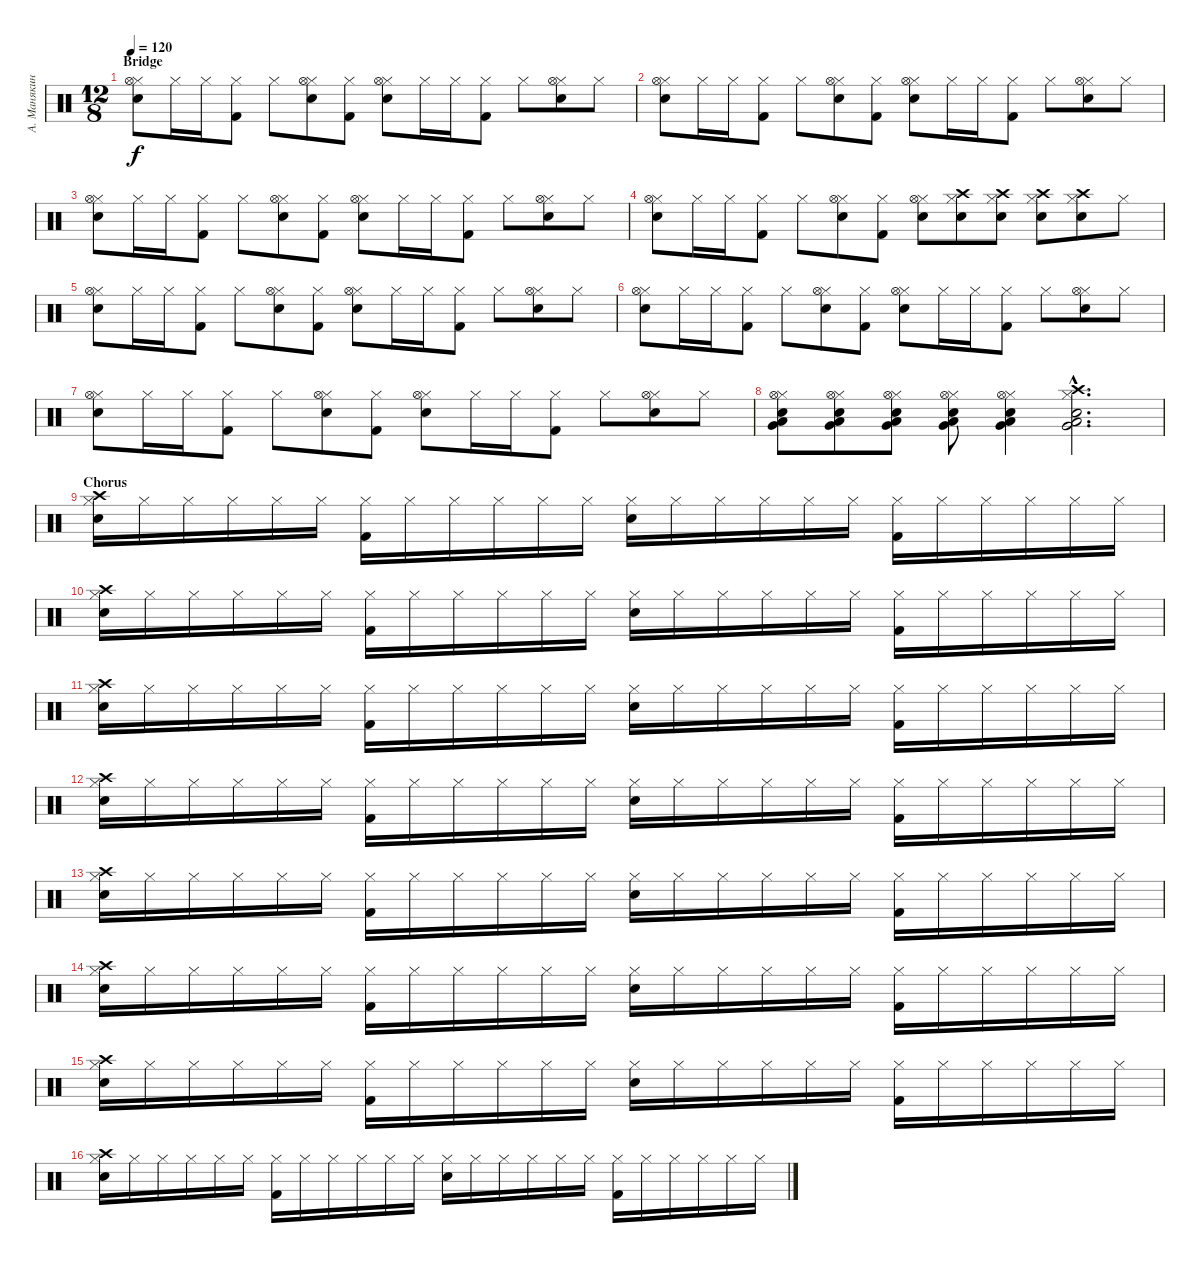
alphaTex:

\track ("А. Манякин" "А. Манякин") {instrument percussion}
\staff {score}
\articulation defaults
\ts (12 8)
\section ("" "Bridge")
\tempo 120
\clef neutral
\ks c
("Hi-Hat (closed)" "Snare (hit) 2" "Hi-Hat (open)").8{dy f} "Hi-Hat (closed)".16 "Hi-Hat (closed)".16 ("Hi-Hat (closed)" "Kick (hit) 2").8 "Hi-Hat (closed)".8 ("Hi-Hat (closed)" "Snare (hit) 2" "Hi-Hat (open)").8 ("Hi-Hat (closed)" "Kick (hit) 2").8 ("Hi-Hat (closed)" "Snare (hit) 2" "Hi-Hat (open)").8 "Hi-Hat (closed)".16 "Hi-Hat (closed)".16 ("Hi-Hat (closed)" "Kick (hit) 2").8 "Hi-Hat (closed)".8 ("Hi-Hat (closed)" "Snare (hit) 2" "Hi-Hat (open)").8 "Hi-Hat (closed)".8 |
("Hi-Hat (closed)" "Snare (hit) 2" "Hi-Hat (open)").8 "Hi-Hat (closed)".16 "Hi-Hat (closed)".16 ("Hi-Hat (closed)" "Kick (hit) 2").8 "Hi-Hat (closed)".8 ("Hi-Hat (closed)" "Snare (hit) 2" "Hi-Hat (open)").8 ("Hi-Hat (closed)" "Kick (hit) 2").8 ("Hi-Hat (closed)" "Snare (hit) 2" "Hi-Hat (open)").8 "Hi-Hat (closed)".16 "Hi-Hat (closed)".16 ("Hi-Hat (closed)" "Kick (hit) 2").8 "Hi-Hat (closed)".8 ("Hi-Hat (closed)" "Snare (hit) 2" "Hi-Hat (open)").8 "Hi-Hat (closed)".8 |
("Hi-Hat (closed)" "Snare (hit) 2" "Hi-Hat (open)").8 "Hi-Hat (closed)".16 "Hi-Hat (closed)".16 ("Hi-Hat (closed)" "Kick (hit) 2").8 "Hi-Hat (closed)".8 ("Hi-Hat (closed)" "Snare (hit) 2" "Hi-Hat (open)").8 ("Hi-Hat (closed)" "Kick (hit) 2").8 ("Hi-Hat (closed)" "Snare (hit) 2" "Hi-Hat (open)").8 "Hi-Hat (closed)".16 "Hi-Hat (closed)".16 ("Hi-Hat (closed)" "Kick (hit) 2").8 "Hi-Hat (closed)".8 ("Hi-Hat (closed)" "Snare (hit) 2" "Hi-Hat (open)").8 "Hi-Hat (closed)".8 |
("Hi-Hat (closed)" "Snare (hit) 2" "Hi-Hat (open)").8 "Hi-Hat (closed)".16 "Hi-Hat (closed)".16 ("Hi-Hat (closed)" "Kick (hit) 2").8 "Hi-Hat (closed)".8 ("Hi-Hat (closed)" "Snare (hit) 2" "Hi-Hat (open)").8 ("Hi-Hat (closed)" "Kick (hit) 2").8 ("Hi-Hat (closed)" "Snare (hit) 2" "Hi-Hat (open)").8 ("Hi-Hat (closed)" "Snare (hit) 2" "Crash high (hit)").8 ("Hi-Hat (closed)" "Snare (hit) 2" "Crash high (hit)").8 ("Hi-Hat (closed)" "Snare (hit) 2" "Crash high (hit)").8 ("Hi-Hat (closed)" "Snare (hit) 2" "Crash high (hit)").8 "Hi-Hat (closed)".8 |
("Hi-Hat (closed)" "Snare (hit) 2" "Hi-Hat (open)").8 "Hi-Hat (closed)".16 "Hi-Hat (closed)".16 ("Hi-Hat (closed)" "Kick (hit) 2").8 "Hi-Hat (closed)".8 ("Hi-Hat (closed)" "Snare (hit) 2" "Hi-Hat (open)").8 ("Hi-Hat (closed)" "Kick (hit) 2").8 ("Hi-Hat (closed)" "Snare (hit) 2" "Hi-Hat (open)").8 "Hi-Hat (closed)".16 "Hi-Hat (closed)".16 ("Hi-Hat (closed)" "Kick (hit) 2").8 "Hi-Hat (closed)".8 ("Hi-Hat (closed)" "Snare (hit) 2" "Hi-Hat (open)").8 "Hi-Hat (closed)".8 |
("Hi-Hat (closed)" "Snare (hit) 2" "Hi-Hat (open)").8 "Hi-Hat (closed)".16 "Hi-Hat (closed)".16 ("Hi-Hat (closed)" "Kick (hit) 2").8 "Hi-Hat (closed)".8 ("Hi-Hat (closed)" "Snare (hit) 2" "Hi-Hat (open)").8 ("Hi-Hat (closed)" "Kick (hit) 2").8 ("Hi-Hat (closed)" "Snare (hit) 2" "Hi-Hat (open)").8 "Hi-Hat (closed)".16 "Hi-Hat (closed)".16 ("Hi-Hat (closed)" "Kick (hit) 2").8 "Hi-Hat (closed)".8 ("Hi-Hat (closed)" "Snare (hit) 2" "Hi-Hat (open)").8 "Hi-Hat (closed)".8 |
("Hi-Hat (closed)" "Snare (hit) 2" "Hi-Hat (open)").8 "Hi-Hat (closed)".16 "Hi-Hat (closed)".16 ("Hi-Hat (closed)" "Kick (hit) 2").8 "Hi-Hat (closed)".8 ("Hi-Hat (closed)" "Snare (hit) 2" "Hi-Hat (open)").8 ("Hi-Hat (closed)" "Kick (hit) 2").8 ("Hi-Hat (closed)" "Snare (hit) 2" "Hi-Hat (open)").8 "Hi-Hat (closed)".16 "Hi-Hat (closed)".16 ("Hi-Hat (closed)" "Kick (hit) 2").8 "Hi-Hat (closed)".8 ("Hi-Hat (closed)" "Snare (hit) 2" "Hi-Hat (open)").8 "Hi-Hat (closed)".8 |
("Hi-Hat (closed)" "Snare (hit) 2" "Low Tom (hit)" "Very Low Tom (hit)" "Hi-Hat (open)").8 ("Hi-Hat (closed)" "Snare (hit) 2" "Low Tom (hit)" "Very Low Tom (hit)" "Hi-Hat (open)").8 ("Hi-Hat (closed)" "Snare (hit) 2" "Very Low Tom (hit)" "Low Tom (hit)" "Hi-Hat (open)").8 ("Hi-Hat (closed)" "Snare (hit) 2" "Very Low Tom (hit)" "Low Tom (hit)" "Hi-Hat (open)").8 ("Hi-Hat (closed)" "Snare (hit) 2" "Low Tom (hit)" "Very Low Tom (hit)" "Hi-Hat (open)").4 ("Hi-Hat (closed)"{hac} "Snare (hit) 2"{hac} "Low Tom (hit)"{hac} "Very Low Tom (hit)"{hac} "Crash high (hit)"{hac}).2{d} |
\section ("" "Chorus")
("Hi-Hat (closed)" "Snare (hit) 2" "Crash high (hit)").16 "Hi-Hat (closed)".16 "Hi-Hat (closed)".16 "Hi-Hat (closed)".16 "Hi-Hat (closed)".16 "Hi-Hat (closed)".16 ("Hi-Hat (closed)" "Kick (hit) 2").16 "Hi-Hat (closed)".16 "Hi-Hat (closed)".16 "Hi-Hat (closed)".16 "Hi-Hat (closed)".16 "Hi-Hat (closed)".16 ("Hi-Hat (closed)" "Snare (hit) 2").16 "Hi-Hat (closed)".16 "Hi-Hat (closed)".16 "Hi-Hat (closed)".16 "Hi-Hat (closed)".16 "Hi-Hat (closed)".16 ("Hi-Hat (closed)" "Kick (hit) 2").16 "Hi-Hat (closed)".16 "Hi-Hat (closed)".16 "Hi-Hat (closed)".16 "Hi-Hat (closed)".16 "Hi-Hat (closed)".16 |
("Hi-Hat (closed)" "Snare (hit) 2" "Crash high (hit)").16 "Hi-Hat (closed)".16 "Hi-Hat (closed)".16 "Hi-Hat (closed)".16 "Hi-Hat (closed)".16 "Hi-Hat (closed)".16 ("Hi-Hat (closed)" "Kick (hit) 2").16 "Hi-Hat (closed)".16 "Hi-Hat (closed)".16 "Hi-Hat (closed)".16 "Hi-Hat (closed)".16 "Hi-Hat (closed)".16 ("Hi-Hat (closed)" "Snare (hit) 2").16 "Hi-Hat (closed)".16 "Hi-Hat (closed)".16 "Hi-Hat (closed)".16 "Hi-Hat (closed)".16 "Hi-Hat (closed)".16 ("Hi-Hat (closed)" "Kick (hit) 2").16 "Hi-Hat (closed)".16 "Hi-Hat (closed)".16 "Hi-Hat (closed)".16 "Hi-Hat (closed)".16 "Hi-Hat (closed)".16 |
("Hi-Hat (closed)" "Snare (hit) 2" "Crash high (hit)").16 "Hi-Hat (closed)".16 "Hi-Hat (closed)".16 "Hi-Hat (closed)".16 "Hi-Hat (closed)".16 "Hi-Hat (closed)".16 ("Hi-Hat (closed)" "Kick (hit) 2").16 "Hi-Hat (closed)".16 "Hi-Hat (closed)".16 "Hi-Hat (closed)".16 "Hi-Hat (closed)".16 "Hi-Hat (closed)".16 ("Hi-Hat (closed)" "Snare (hit) 2").16 "Hi-Hat (closed)".16 "Hi-Hat (closed)".16 "Hi-Hat (closed)".16 "Hi-Hat (closed)".16 "Hi-Hat (closed)".16 ("Hi-Hat (closed)" "Kick (hit) 2").16 "Hi-Hat (closed)".16 "Hi-Hat (closed)".16 "Hi-Hat (closed)".16 "Hi-Hat (closed)".16 "Hi-Hat (closed)".16 |
("Hi-Hat (closed)" "Snare (hit) 2" "Crash high (hit)").16 "Hi-Hat (closed)".16 "Hi-Hat (closed)".16 "Hi-Hat (closed)".16 "Hi-Hat (closed)".16 "Hi-Hat (closed)".16 ("Hi-Hat (closed)" "Kick (hit) 2").16 "Hi-Hat (closed)".16 "Hi-Hat (closed)".16 "Hi-Hat (closed)".16 "Hi-Hat (closed)".16 "Hi-Hat (closed)".16 ("Hi-Hat (closed)" "Snare (hit) 2").16 "Hi-Hat (closed)".16 "Hi-Hat (closed)".16 "Hi-Hat (closed)".16 "Hi-Hat (closed)".16 "Hi-Hat (closed)".16 ("Hi-Hat (closed)" "Kick (hit) 2").16 "Hi-Hat (closed)".16 "Hi-Hat (closed)".16 "Hi-Hat (closed)".16 "Hi-Hat (closed)".16 "Hi-Hat (closed)".16 |
("Hi-Hat (closed)" "Snare (hit) 2" "Crash high (hit)").16 "Hi-Hat (closed)".16 "Hi-Hat (closed)".16 "Hi-Hat (closed)".16 "Hi-Hat (closed)".16 "Hi-Hat (closed)".16 ("Hi-Hat (closed)" "Kick (hit) 2").16 "Hi-Hat (closed)".16 "Hi-Hat (closed)".16 "Hi-Hat (closed)".16 "Hi-Hat (closed)".16 "Hi-Hat (closed)".16 ("Hi-Hat (closed)" "Snare (hit) 2").16 "Hi-Hat (closed)".16 "Hi-Hat (closed)".16 "Hi-Hat (closed)".16 "Hi-Hat (closed)".16 "Hi-Hat (closed)".16 ("Hi-Hat (closed)" "Kick (hit) 2").16 "Hi-Hat (closed)".16 "Hi-Hat (closed)".16 "Hi-Hat (closed)".16 "Hi-Hat (closed)".16 "Hi-Hat (closed)".16 |
("Hi-Hat (closed)" "Snare (hit) 2" "Crash high (hit)").16 "Hi-Hat (closed)".16 "Hi-Hat (closed)".16 "Hi-Hat (closed)".16 "Hi-Hat (closed)".16 "Hi-Hat (closed)".16 ("Hi-Hat (closed)" "Kick (hit) 2").16 "Hi-Hat (closed)".16 "Hi-Hat (closed)".16 "Hi-Hat (closed)".16 "Hi-Hat (closed)".16 "Hi-Hat (closed)".16 ("Hi-Hat (closed)" "Snare (hit) 2").16 "Hi-Hat (closed)".16 "Hi-Hat (closed)".16 "Hi-Hat (closed)".16 "Hi-Hat (closed)".16 "Hi-Hat (closed)".16 ("Hi-Hat (closed)" "Kick (hit) 2").16 "Hi-Hat (closed)".16 "Hi-Hat (closed)".16 "Hi-Hat (closed)".16 "Hi-Hat (closed)".16 "Hi-Hat (closed)".16 |
("Hi-Hat (closed)" "Snare (hit) 2" "Crash high (hit)").16 "Hi-Hat (closed)".16 "Hi-Hat (closed)".16 "Hi-Hat (closed)".16 "Hi-Hat (closed)".16 "Hi-Hat (closed)".16 ("Hi-Hat (closed)" "Kick (hit) 2").16 "Hi-Hat (closed)".16 "Hi-Hat (closed)".16 "Hi-Hat (closed)".16 "Hi-Hat (closed)".16 "Hi-Hat (closed)".16 ("Hi-Hat (closed)" "Snare (hit) 2").16 "Hi-Hat (closed)".16 "Hi-Hat (closed)".16 "Hi-Hat (closed)".16 "Hi-Hat (closed)".16 "Hi-Hat (closed)".16 ("Hi-Hat (closed)" "Kick (hit) 2").16 "Hi-Hat (closed)".16 "Hi-Hat (closed)".16 "Hi-Hat (closed)".16 "Hi-Hat (closed)".16 "Hi-Hat (closed)".16 |
("Hi-Hat (closed)" "Snare (hit) 2" "Crash high (hit)").16 "Hi-Hat (closed)".16 "Hi-Hat (closed)".16 "Hi-Hat (closed)".16 "Hi-Hat (closed)".16 "Hi-Hat (closed)".16 ("Hi-Hat (closed)" "Kick (hit) 2").16 "Hi-Hat (closed)".16 "Hi-Hat (closed)".16 "Hi-Hat (closed)".16 "Hi-Hat (closed)".16 "Hi-Hat (closed)".16 ("Hi-Hat (closed)" "Snare (hit) 2").16 "Hi-Hat (closed)".16 "Hi-Hat (closed)".16 "Hi-Hat (closed)".16 "Hi-Hat (closed)".16 "Hi-Hat (closed)".16 ("Hi-Hat (closed)" "Kick (hit) 2").16 "Hi-Hat (closed)".16 "Hi-Hat (closed)".16 "Hi-Hat (closed)".16 "Hi-Hat (closed)".16 "Hi-Hat (closed)".16
